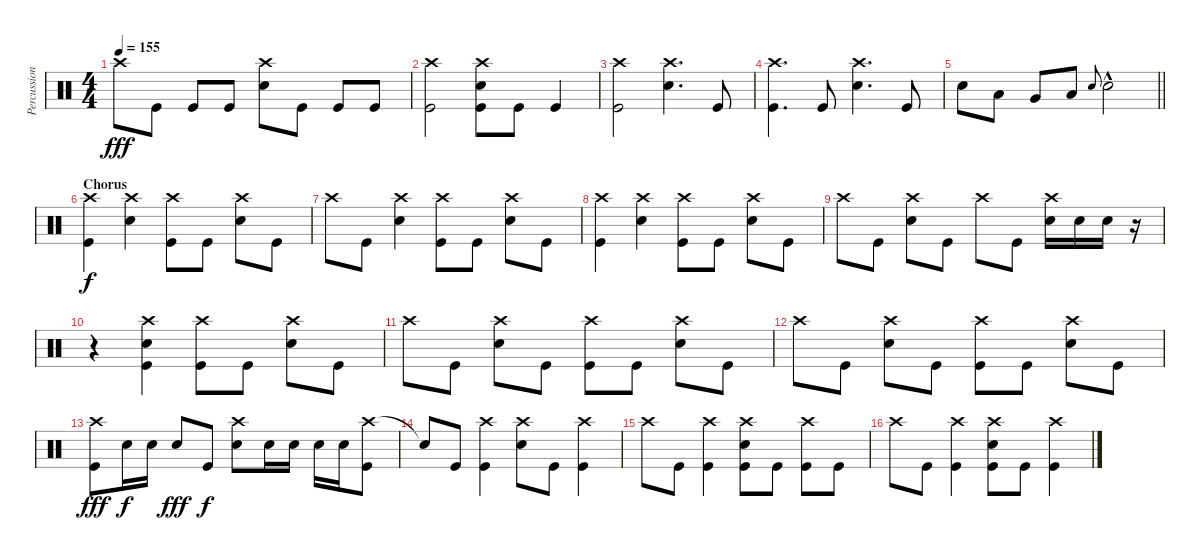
\track ("Percussion" "Percussion") {instrument percussion}
\staff {score}
\articulation defaults
\ts (4 4)
\tempo 155
\clef neutral
\ks c "Crash high (hit)".8{dy fff} "Kick (hit)".8 "Kick (hit)".8 "Kick (hit)".8
("Crash high (hit)" "Snare (hit) 2").8 "Kick (hit)".8 "Kick (hit)".8 "Kick (hit)".8 |
("Crash high (hit)" "Kick (hit)").2 ("Crash high (hit)" "Snare (hit) 2" "Kick (hit)").8 "Kick (hit)".8 "Kick (hit)".4 |
("Crash high (hit)" "Kick (hit)").2 ("Crash high (hit)" "Snare (hit) 2").4{d} "Kick (hit)".8 |
("Crash high (hit)" "Kick (hit)").4{d} "Kick (hit)".8 ("Crash high (hit)" "Snare (hit) 2").4{d} "Kick (hit)".8 |
\barLineRight lightlight "Snare (hit) 2".8 "Low Tom (hit)".8 "Very Low Tom (hit)".8 "Low Floor Tom (hit)".8 "Snare (hit) 2".8{gr onbeat} "Snare (hit) 2"{hac}.2
|
\section ("" "Chorus")
("Crash high (hit)" "Kick (hit)").4{dy f} ("Crash high (hit)" "Snare (hit) 2").4 ("Crash high (hit)" "Kick (hit)").8 "Kick (hit)".8 ("Crash high (hit)" "Snare (hit) 2").8 "Kick (hit)".8 |
"Crash high (hit)".8 "Kick (hit)".8 ("Crash high (hit)" "Snare (hit) 2").4 ("Crash high (hit)" "Kick (hit)").8 "Kick (hit)".8 ("Crash high (hit)" "Snare (hit) 2").8 "Kick (hit)".8 |
("Crash high (hit)" "Kick (hit)").4 ("Crash high (hit)" "Snare (hit) 2").4 ("Crash high (hit)" "Kick (hit)").8 "Kick (hit)".8 ("Crash high (hit)" "Snare (hit) 2").8 "Kick (hit)".8 |
"Crash high (hit)".8 "Kick (hit)".8 ("Crash high (hit)" "Snare (hit) 2").8 "Kick (hit)".8 "Crash high (hit)".8 "Kick (hit)".8 ("Crash high (hit)" "Snare (hit) 2").16 "Snare (hit) 2".16 "Snare (hit) 2".16 r.16 |
r.4 ("Crash high (hit)" "Snare (hit) 2" "Kick (hit)").4 ("Crash high (hit)" "Kick (hit)").8 "Kick (hit)".8 ("Crash high (hit)" "Snare (hit) 2").8 "Kick (hit)".8 |
"Crash high (hit)".8 "Kick (hit)".8 ("Crash high (hit)" "Snare (hit) 2").8 "Kick (hit)".8 ("Crash high (hit)" "Kick (hit)").8 "Kick (hit)".8 ("Crash high (hit)" "Snare (hit) 2").8 "Kick (hit)".8 |
"Crash high (hit)".8 "Kick (hit)".8 ("Crash high (hit)" "Snare (hit) 2").8 "Kick (hit)".8 ("Crash high (hit)" "Kick (hit)").8 "Kick (hit)".8 ("Crash high (hit)" "Snare (hit) 2").8 "Kick (hit)".8 |
("Crash high (hit)" "Kick (hit)").8{dy fff} "Snare (hit) 2".16{dy f} "Snare (hit) 2".16 "Snare (hit) 2".8{dy fff} "Kick (hit)".8{dy f} ("Crash high (hit)" "Snare (hit) 2").8 "Snare (hit) 2".16 "Snare (hit) 2".16 "Snare (hit) 2".16 "Snare (hit) 2".16 ("Crash high (hit)" "Kick (hit)").8 |
"Snare (hit)"{t}.8 "Kick (hit)".8 ("Crash high (hit)" "Kick (hit)").4 ("Crash high (hit)" "Snare (hit) 2").8 "Kick (hit)".8 ("Crash high (hit)" "Kick (hit)").4 |
"Crash high (hit)".8 "Kick (hit)".8 ("Crash high (hit)" "Kick (hit)").4 ("Crash high (hit)" "Snare (hit) 2" "Kick (hit)").8 "Kick (hit)".8 ("Crash high (hit)" "Kick (hit)").8 "Kick (hit)".8 |
"Crash high (hit)".8 "Kick (hit)".8 ("Crash high (hit)" "Kick (hit)").4 ("Crash high (hit)" "Snare (hit) 2" "Kick (hit)").8 "Kick (hit)".8 ("Crash high (hit)" "Kick (hit)").4
